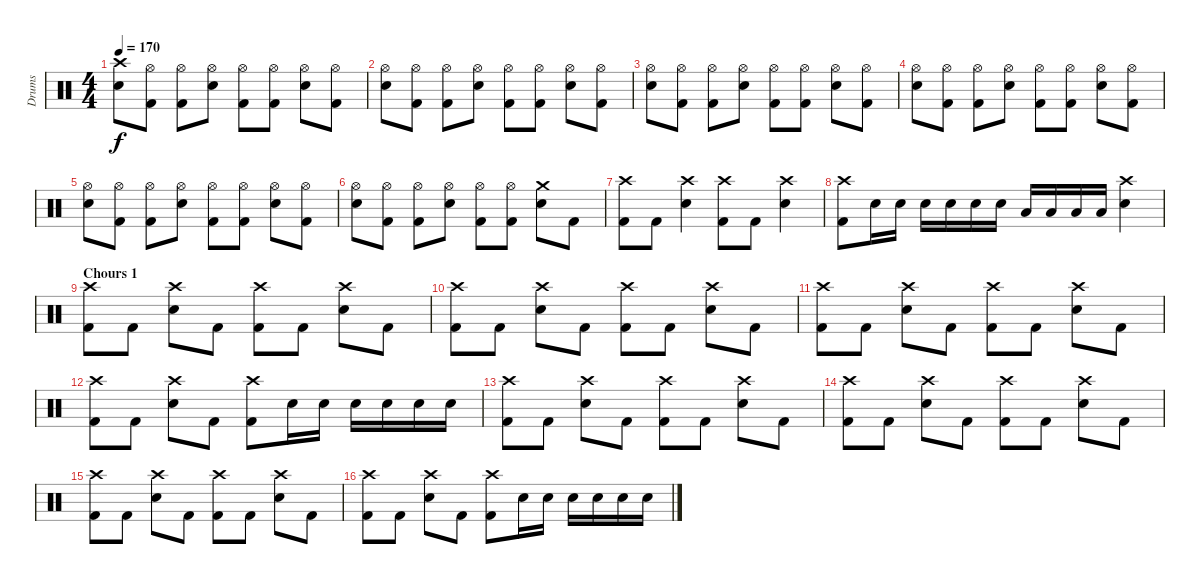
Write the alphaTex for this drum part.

\track ("Drums" "Drums") {instrument percussion}
\staff {score}
\articulation defaults
\ts (4 4)
\tempo 170
\clef neutral
\ks c
("Crash high (hit)" "Snare (hit) 2").8{dy f} ("Hi-Hat (open)" "Kick (hit) 2").8 ("Hi-Hat (open)" "Kick (hit) 2").8 ("Hi-Hat (open)" "Snare (hit) 2").8 ("Hi-Hat (open)" "Kick (hit) 2").8 ("Hi-Hat (open)" "Kick (hit) 2").8 ("Hi-Hat (open)" "Snare (hit) 2").8 ("Hi-Hat (open)" "Kick (hit) 2").8 |
("Hi-Hat (open)" "Snare (hit) 2").8 ("Hi-Hat (open)" "Kick (hit) 2").8 ("Hi-Hat (open)" "Kick (hit) 2").8 ("Hi-Hat (open)" "Snare (hit) 2").8 ("Hi-Hat (open)" "Kick (hit) 2").8 ("Hi-Hat (open)" "Kick (hit) 2").8 ("Hi-Hat (open)" "Snare (hit) 2").8 ("Hi-Hat (open)" "Kick (hit) 2").8 |
("Hi-Hat (open)" "Snare (hit) 2").8 ("Hi-Hat (open)" "Kick (hit) 2").8 ("Hi-Hat (open)" "Kick (hit) 2").8 ("Hi-Hat (open)" "Snare (hit) 2").8 ("Hi-Hat (open)" "Kick (hit) 2").8 ("Hi-Hat (open)" "Kick (hit) 2").8 ("Hi-Hat (open)" "Snare (hit) 2").8 ("Hi-Hat (open)" "Kick (hit) 2").8 |
("Hi-Hat (open)" "Snare (hit) 2").8 ("Hi-Hat (open)" "Kick (hit) 2").8 ("Hi-Hat (open)" "Kick (hit) 2").8 ("Hi-Hat (open)" "Snare (hit) 2").8 ("Hi-Hat (open)" "Kick (hit) 2").8 ("Hi-Hat (open)" "Kick (hit) 2").8 ("Hi-Hat (open)" "Snare (hit) 2").8 ("Hi-Hat (open)" "Kick (hit) 2").8 |
("Hi-Hat (open)" "Snare (hit) 2").8 ("Hi-Hat (open)" "Kick (hit) 2").8 ("Hi-Hat (open)" "Kick (hit) 2").8 ("Hi-Hat (open)" "Snare (hit) 2").8 ("Hi-Hat (open)" "Kick (hit) 2").8 ("Hi-Hat (open)" "Kick (hit) 2").8 ("Hi-Hat (open)" "Snare (hit) 2").8 ("Hi-Hat (open)" "Kick (hit) 2").8 |
("Hi-Hat (open)" "Snare (hit) 2").8 ("Hi-Hat (open)" "Kick (hit) 2").8 ("Hi-Hat (open)" "Kick (hit) 2").8 ("Hi-Hat (open)" "Snare (hit) 2").8 ("Hi-Hat (open)" "Kick (hit) 2").8 ("Hi-Hat (open)" "Kick (hit) 2").8 ("Crash medium (hit)" "Snare (hit) 2").8 "Kick (hit) 2".8 |
("Crash high (hit)" "Kick (hit) 2").8 "Kick (hit) 2".8 ("Crash high (hit)" "Snare (hit) 2").4 ("Crash high (hit)" "Kick (hit) 2").8 "Kick (hit) 2".8 ("Crash high (hit)" "Snare (hit) 2").4 |
("Crash high (hit)" "Kick (hit) 2").8 "Snare (hit) 2".16 "Snare (hit) 2".16 "Snare (hit) 2".16 "Snare (hit) 2".16 "Snare (hit) 2".16 "Snare (hit) 2".16 "Low Tom (hit)".16 "Low Tom (hit)".16 "Low Tom (hit)".16 "Low Tom (hit)".16 ("Crash high (hit)" "Snare (hit) 2").4 |
\section ("" "Chours 1")
("Crash high (hit)" "Kick (hit) 2").8 "Kick (hit) 2".8 ("Crash high (hit)" "Snare (hit) 2").8 "Kick (hit) 2".8 ("Crash high (hit)" "Kick (hit) 2").8 "Kick (hit) 2".8 ("Crash high (hit)" "Snare (hit) 2").8 "Kick (hit) 2".8 |
("Crash high (hit)" "Kick (hit) 2").8 "Kick (hit) 2".8 ("Crash high (hit)" "Snare (hit) 2").8 "Kick (hit) 2".8 ("Crash high (hit)" "Kick (hit) 2").8 "Kick (hit) 2".8 ("Crash high (hit)" "Snare (hit) 2").8 "Kick (hit) 2".8 |
("Crash high (hit)" "Kick (hit) 2").8 "Kick (hit) 2".8 ("Crash high (hit)" "Snare (hit) 2").8 "Kick (hit) 2".8 ("Crash high (hit)" "Kick (hit) 2").8 "Kick (hit) 2".8 ("Crash high (hit)" "Snare (hit) 2").8 "Kick (hit) 2".8 |
("Crash high (hit)" "Kick (hit) 2").8 "Kick (hit) 2".8 ("Crash high (hit)" "Snare (hit) 2").8 "Kick (hit) 2".8 ("Crash high (hit)" "Kick (hit) 2").8 "Snare (hit) 2".16 "Snare (hit) 2".16 "Snare (hit) 2".16 "Snare (hit) 2".16 "Snare (hit) 2".16 "Snare (hit) 2".16 |
("Crash high (hit)" "Kick (hit) 2").8 "Kick (hit) 2".8 ("Crash high (hit)" "Snare (hit) 2").8 "Kick (hit) 2".8 ("Crash high (hit)" "Kick (hit) 2").8 "Kick (hit) 2".8 ("Crash high (hit)" "Snare (hit) 2").8 "Kick (hit) 2".8 |
("Crash high (hit)" "Kick (hit) 2").8 "Kick (hit) 2".8 ("Crash high (hit)" "Snare (hit) 2").8 "Kick (hit) 2".8 ("Crash high (hit)" "Kick (hit) 2").8 "Kick (hit) 2".8 ("Crash high (hit)" "Snare (hit) 2").8 "Kick (hit) 2".8 |
("Crash high (hit)" "Kick (hit) 2").8 "Kick (hit) 2".8 ("Crash high (hit)" "Snare (hit) 2").8 "Kick (hit) 2".8 ("Crash high (hit)" "Kick (hit) 2").8 "Kick (hit) 2".8 ("Crash high (hit)" "Snare (hit) 2").8 "Kick (hit) 2".8 |
("Crash high (hit)" "Kick (hit) 2").8 "Kick (hit) 2".8 ("Crash high (hit)" "Snare (hit) 2").8 "Kick (hit) 2".8 ("Crash high (hit)" "Kick (hit) 2").8 "Snare (hit) 2".16 "Snare (hit) 2".16 "Snare (hit) 2".16 "Snare (hit) 2".16 "Snare (hit) 2".16 "Snare (hit) 2".16
